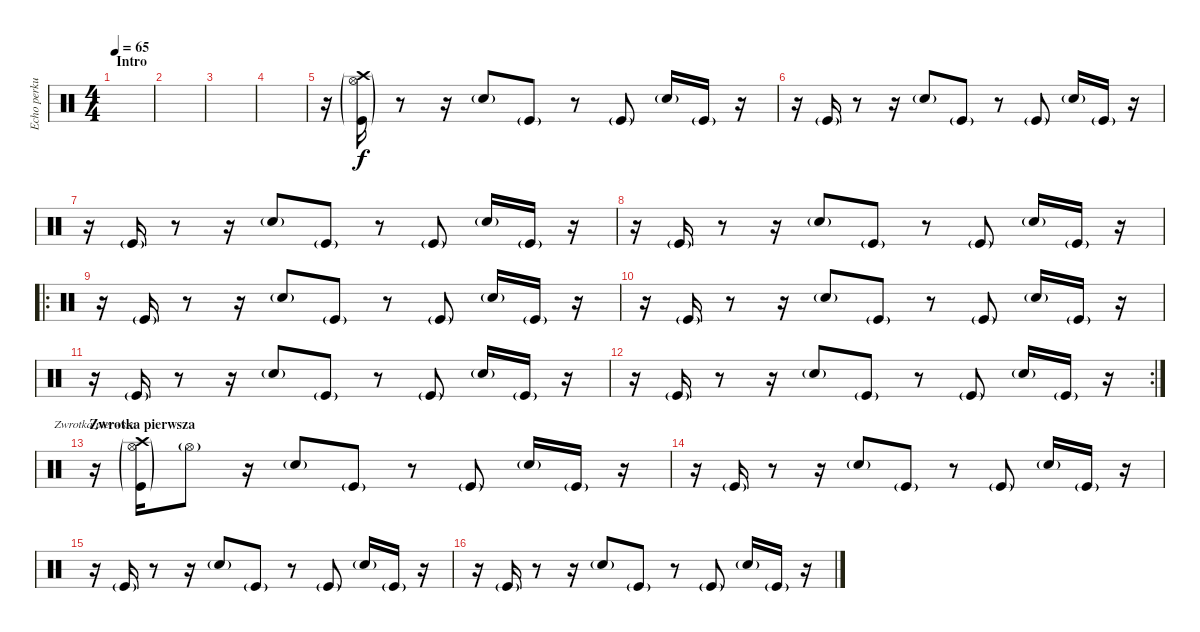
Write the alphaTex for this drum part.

\track ("Echo perkusji 1" "Echo perku") {instrument percussion}
\staff {score}
\articulation defaults
\chord ("Intro")
\chord ("Zwrotka pierwsza")
\ts (4 4)
\section ("" "Intro")
\tempo 65
\clef neutral
\ks c
|
|
|
|
r.16 ("Kick (hit)"{g} "Hi-Hat (open)"{g} "Crash high (hit)"{g}).16 r.8 r.16 "Snare (hit) 2"{g}.8 "Kick (hit)"{g}.8 r.8 "Kick (hit)"{g}.8 "Snare (hit) 2"{g}.16 "Kick (hit)"{g}.16 r.16 |
r.16 "Kick (hit)"{g}.16 r.8 r.16 "Snare (hit) 2"{g}.8 "Kick (hit)"{g}.8 r.8 "Kick (hit)"{g}.8 "Snare (hit) 2"{g}.16 "Kick (hit)"{g}.16 r.16 |
r.16 "Kick (hit)"{g}.16 r.8 r.16 "Snare (hit) 2"{g}.8 "Kick (hit)"{g}.8 r.8 "Kick (hit)"{g}.8 "Snare (hit) 2"{g}.16 "Kick (hit)"{g}.16 r.16 |
r.16 "Kick (hit)"{g}.16 r.8 r.16 "Snare (hit) 2"{g}.8 "Kick (hit)"{g}.8 r.8 "Kick (hit)"{g}.8 "Snare (hit) 2"{g}.16 "Kick (hit)"{g}.16 r.16 |
\ro
r.16 "Kick (hit)"{g}.16 r.8 r.16 "Snare (hit) 2"{g}.8 "Kick (hit)"{g}.8 r.8 "Kick (hit)"{g}.8 "Snare (hit) 2"{g}.16 "Kick (hit)"{g}.16 r.16 |
r.16 "Kick (hit)"{g}.16 r.8 r.16 "Snare (hit) 2"{g}.8 "Kick (hit)"{g}.8 r.8 "Kick (hit)"{g}.8 "Snare (hit) 2"{g}.16 "Kick (hit)"{g}.16 r.16 |
r.16 "Kick (hit)"{g}.16 r.8 r.16 "Snare (hit) 2"{g}.8 "Kick (hit)"{g}.8 r.8 "Kick (hit)"{g}.8 "Snare (hit) 2"{g}.16 "Kick (hit)"{g}.16 r.16 |
\rc 2
r.16 "Kick (hit)"{g}.16 r.8 r.16 "Snare (hit) 2"{g}.8 "Kick (hit)"{g}.8 r.8 "Kick (hit)"{g}.8 "Snare (hit) 2"{g}.16 "Kick (hit)"{g}.16 r.16 |
\section ("" "Zwrotka pierwsza")
r.16{ch "Zwrotka pierwsza"} ("Kick (hit)"{g} "Hi-Hat (open)"{g} "Crash high (hit)"{g}).16 "Hi-Hat (open)"{g}.8 r.16 "Snare (hit) 2"{g}.8 "Kick (hit)"{g}.8 r.8 "Kick (hit)"{g}.8 "Snare (hit) 2"{g}.16 "Kick (hit)"{g}.16 r.16 |
r.16 "Kick (hit)"{g}.16 r.8 r.16 "Snare (hit) 2"{g}.8 "Kick (hit)"{g}.8 r.8 "Kick (hit)"{g}.8 "Snare (hit) 2"{g}.16 "Kick (hit)"{g}.16 r.16 |
r.16 "Kick (hit)"{g}.16 r.8 r.16 "Snare (hit) 2"{g}.8 "Kick (hit)"{g}.8 r.8 "Kick (hit)"{g}.8 "Snare (hit) 2"{g}.16 "Kick (hit)"{g}.16 r.16 |
r.16 "Kick (hit)"{g}.16 r.8 r.16 "Snare (hit) 2"{g}.8 "Kick (hit)"{g}.8 r.8 "Kick (hit)"{g}.8 "Snare (hit) 2"{g}.16 "Kick (hit)"{g}.16 r.16
